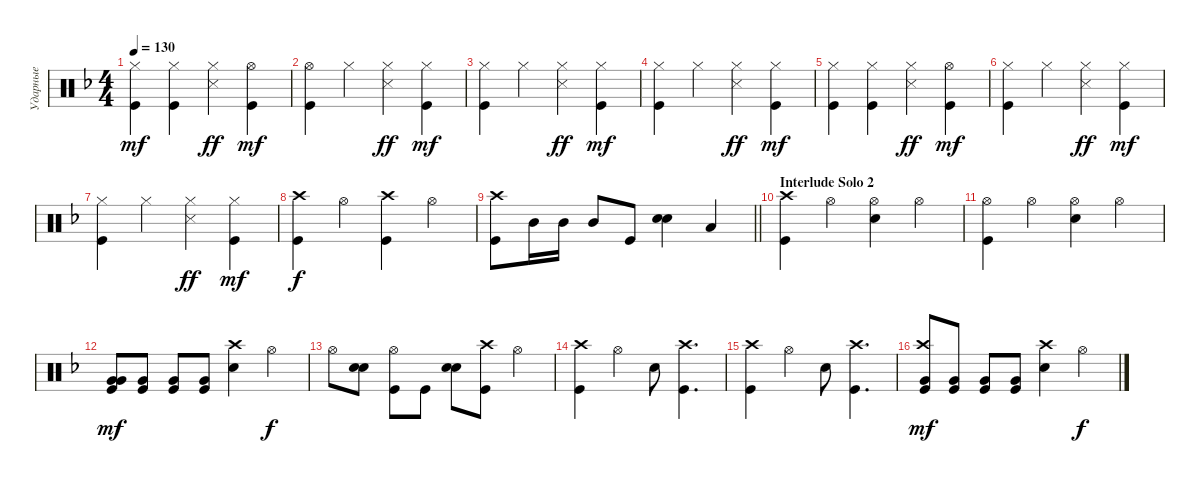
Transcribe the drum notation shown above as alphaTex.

\track ("Ударные" "Ударные") {instrument percussion}
\staff {score}
\articulation defaults
\ts (4 4)
\tempo 130
\clef neutral
\ks dminor
("Hi-Hat (closed)" "Kick (hit)").4{dy mf} ("Hi-Hat (closed)" "Kick (hit)").4 ("Hi-Hat (closed)" "Snare (side stick) 3").4{dy ff} ("Hi-Hat (open)" "Kick (hit)").4{dy mf} |
("Hi-Hat (open)" "Kick (hit)").4 "Hi-Hat (closed)".4 ("Hi-Hat (closed)" "Snare (side stick) 3").4{dy ff} ("Hi-Hat (closed)" "Kick (hit)").4{dy mf} |
("Hi-Hat (closed)" "Kick (hit)").4 "Hi-Hat (closed)".4 ("Hi-Hat (closed)" "Snare (side stick) 3").4{dy ff} ("Hi-Hat (closed)" "Kick (hit)").4{dy mf} |
("Hi-Hat (closed)" "Kick (hit)").4 "Hi-Hat (closed)".4 ("Hi-Hat (closed)" "Snare (side stick) 3").4{dy ff} ("Hi-Hat (closed)" "Kick (hit)").4{dy mf} |
("Hi-Hat (closed)" "Kick (hit)").4 ("Hi-Hat (closed)" "Kick (hit)").4 ("Hi-Hat (closed)" "Snare (side stick) 3").4{dy ff} ("Hi-Hat (open)" "Kick (hit)").4{dy mf} |
("Hi-Hat (closed)" "Kick (hit)").4 "Hi-Hat (closed)".4 ("Hi-Hat (closed)" "Snare (side stick) 3").4{dy ff} ("Hi-Hat (closed)" "Kick (hit)").4{dy mf} |
("Hi-Hat (closed)" "Kick (hit)").4 "Hi-Hat (closed)".4 ("Hi-Hat (closed)" "Snare (side stick) 3").4{dy ff} ("Hi-Hat (closed)" "Kick (hit)").4{dy mf} |
("Kick (hit)" "Crash high (hit)").4{dy f} "Hi-Hat (open)".4 ("Crash high (hit)" "Kick (hit)").4 "Hi-Hat (open)".4 |
\barLineRight lightlight
("Kick (hit)" "Crash high (hit)").8 "Mid Tom (hit)".16 "Mid Tom (hit)".16 "Mid Tom (hit)".8 "Kick (hit)".8 ("Snare (hit) 2" "Snare (hit) 2").4{bd 240} "Low Tom (hit)".4 |
\section ("" "Interlude Solo 2")
("Kick (hit)" "Crash high (hit)").4 "Hi-Hat (open)".4 ("Hi-Hat (open)" "Snare (hit) 2").4 "Hi-Hat (open)".4 |
("Kick (hit)" "Hi-Hat (open)").4 "Hi-Hat (open)".4 ("Hi-Hat (open)" "Snare (hit) 2").4 "Hi-Hat (open)".4 |
("Very Low Tom (hit)" "Very Low Tom (hit)" "Kick (hit)").8{bd 120 dy mf} ("Very Low Tom (hit)" "Kick (hit)").8 ("Kick (hit)" "Very Low Tom (hit)").8{bd 120} ("Very Low Tom (hit)" "Kick (hit)").8 ("Snare (hit) 2" "Crash high (hit)").4 "Hi-Hat (open)".4{dy f} |
"Hi-Hat (open)".8 ("Snare (hit) 2" "Snare (hit) 2").8{bd 240} ("Kick (hit)" "Hi-Hat (open)").8 "Kick (hit)".8 ("Snare (hit) 2" "Snare (hit) 2").8{bd 240} ("Kick (hit)" "Crash high (hit)").8 "Hi-Hat (open)".4 |
("Kick (hit)" "Crash high (hit)").4 "Hi-Hat (open)".4 "Snare (hit) 2".8 ("Kick (hit)" "Crash high (hit)").4{d} |
("Kick (hit)" "Crash high (hit)").4 "Hi-Hat (open)".4 "Snare (hit) 2".8 ("Kick (hit)" "Crash high (hit)").4{d} |
("Crash high (hit)" "Very Low Tom (hit)" "Kick (hit)").8{dy mf} ("Very Low Tom (hit)" "Kick (hit)").8 ("Kick (hit)" "Very Low Tom (hit)").8{bd 120} ("Very Low Tom (hit)" "Kick (hit)").8 ("Snare (hit) 2" "Crash high (hit)").4 "Hi-Hat (open)".4{dy f}
